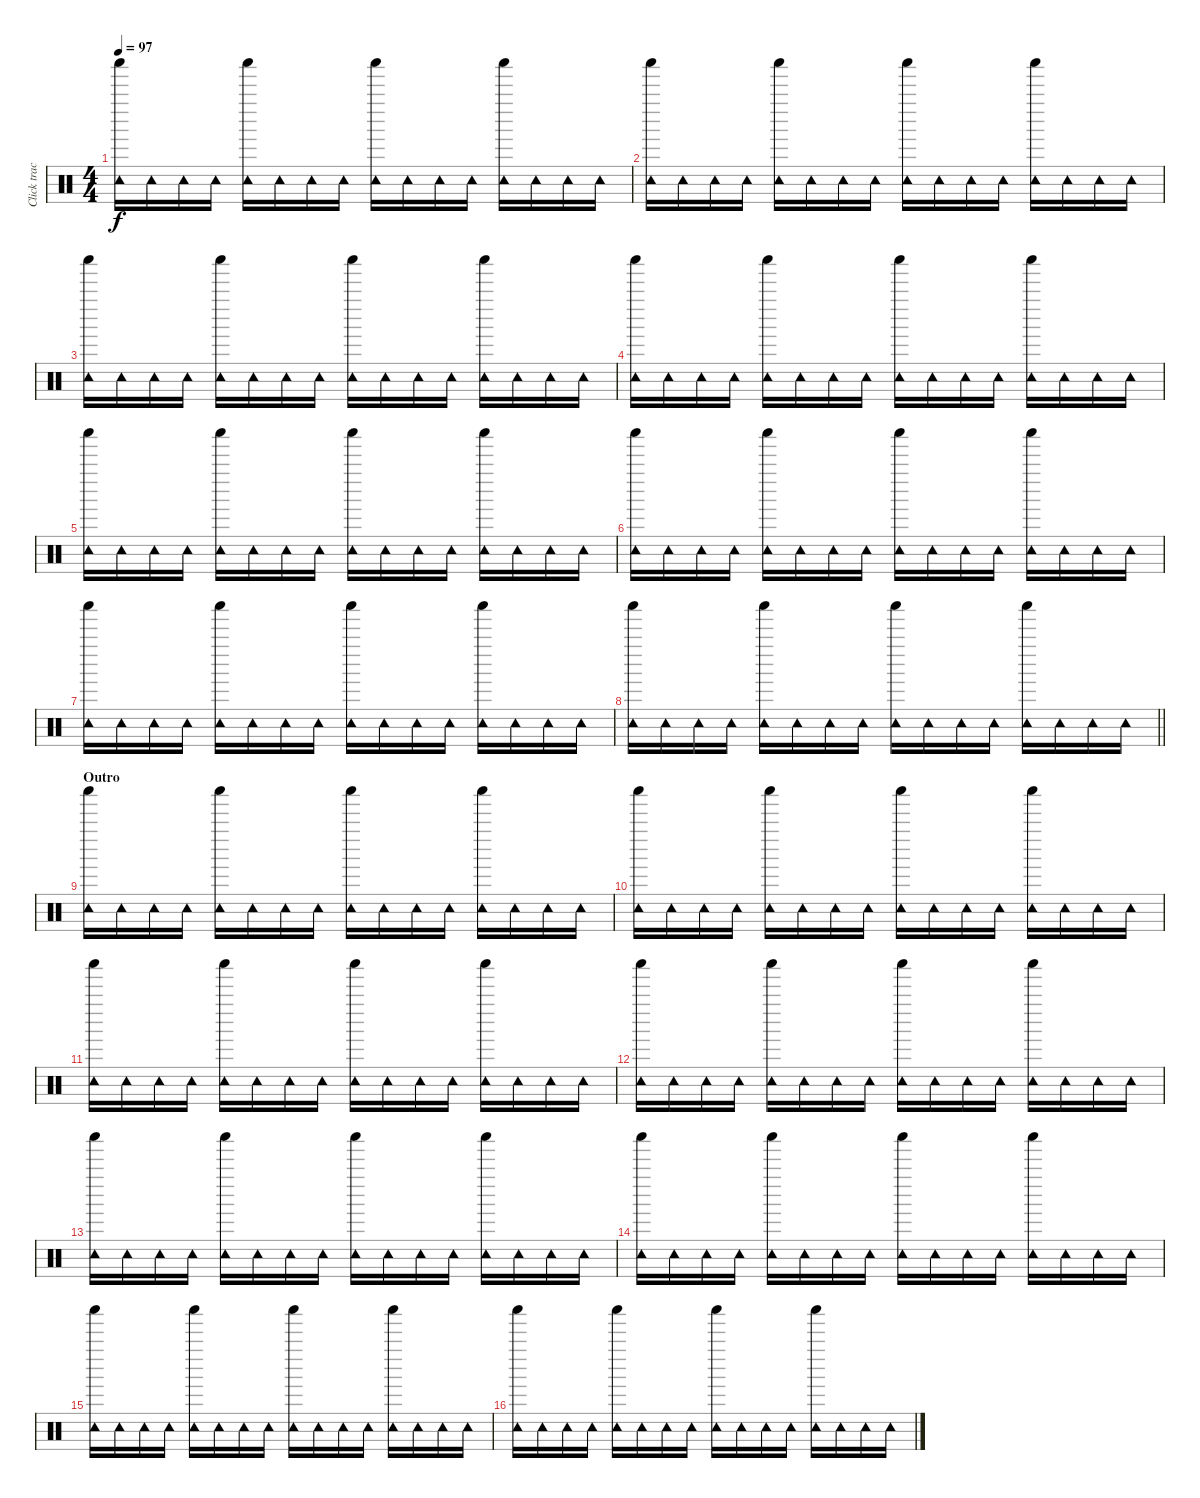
\track ("Click track" "Click trac") {instrument percussion}
\staff {score}
\articulation defaults
\ts (4 4)
\tempo 97
\clef neutral
\ks c
("Shaker (hit)" "Tambourine (hit)").16{dy f} "Tambourine (hit)".16 "Tambourine (hit)".16 "Tambourine (hit)".16 ("Shaker (hit)" "Tambourine (hit)").16 "Tambourine (hit)".16 "Tambourine (hit)".16 "Tambourine (hit)".16 ("Shaker (hit)" "Tambourine (hit)").16 "Tambourine (hit)".16 "Tambourine (hit)".16 "Tambourine (hit)".16 ("Shaker (hit)" "Tambourine (hit)").16 "Tambourine (hit)".16 "Tambourine (hit)".16 "Tambourine (hit)".16 |
("Shaker (hit)" "Tambourine (hit)").16 "Tambourine (hit)".16 "Tambourine (hit)".16 "Tambourine (hit)".16 ("Shaker (hit)" "Tambourine (hit)").16 "Tambourine (hit)".16 "Tambourine (hit)".16 "Tambourine (hit)".16 ("Shaker (hit)" "Tambourine (hit)").16 "Tambourine (hit)".16 "Tambourine (hit)".16 "Tambourine (hit)".16 ("Shaker (hit)" "Tambourine (hit)").16 "Tambourine (hit)".16 "Tambourine (hit)".16 "Tambourine (hit)".16 |
("Shaker (hit)" "Tambourine (hit)").16 "Tambourine (hit)".16 "Tambourine (hit)".16 "Tambourine (hit)".16 ("Shaker (hit)" "Tambourine (hit)").16 "Tambourine (hit)".16 "Tambourine (hit)".16 "Tambourine (hit)".16 ("Shaker (hit)" "Tambourine (hit)").16 "Tambourine (hit)".16 "Tambourine (hit)".16 "Tambourine (hit)".16 ("Shaker (hit)" "Tambourine (hit)").16 "Tambourine (hit)".16 "Tambourine (hit)".16 "Tambourine (hit)".16 |
("Shaker (hit)" "Tambourine (hit)").16 "Tambourine (hit)".16 "Tambourine (hit)".16 "Tambourine (hit)".16 ("Shaker (hit)" "Tambourine (hit)").16 "Tambourine (hit)".16 "Tambourine (hit)".16 "Tambourine (hit)".16 ("Shaker (hit)" "Tambourine (hit)").16 "Tambourine (hit)".16 "Tambourine (hit)".16 "Tambourine (hit)".16 ("Shaker (hit)" "Tambourine (hit)").16 "Tambourine (hit)".16 "Tambourine (hit)".16 "Tambourine (hit)".16 |
("Shaker (hit)" "Tambourine (hit)").16 "Tambourine (hit)".16 "Tambourine (hit)".16 "Tambourine (hit)".16 ("Shaker (hit)" "Tambourine (hit)").16 "Tambourine (hit)".16 "Tambourine (hit)".16 "Tambourine (hit)".16 ("Shaker (hit)" "Tambourine (hit)").16 "Tambourine (hit)".16 "Tambourine (hit)".16 "Tambourine (hit)".16 ("Shaker (hit)" "Tambourine (hit)").16 "Tambourine (hit)".16 "Tambourine (hit)".16 "Tambourine (hit)".16 |
("Shaker (hit)" "Tambourine (hit)").16 "Tambourine (hit)".16 "Tambourine (hit)".16 "Tambourine (hit)".16 ("Shaker (hit)" "Tambourine (hit)").16 "Tambourine (hit)".16 "Tambourine (hit)".16 "Tambourine (hit)".16 ("Shaker (hit)" "Tambourine (hit)").16 "Tambourine (hit)".16 "Tambourine (hit)".16 "Tambourine (hit)".16 ("Shaker (hit)" "Tambourine (hit)").16 "Tambourine (hit)".16 "Tambourine (hit)".16 "Tambourine (hit)".16 |
("Shaker (hit)" "Tambourine (hit)").16 "Tambourine (hit)".16 "Tambourine (hit)".16 "Tambourine (hit)".16 ("Shaker (hit)" "Tambourine (hit)").16 "Tambourine (hit)".16 "Tambourine (hit)".16 "Tambourine (hit)".16 ("Shaker (hit)" "Tambourine (hit)").16 "Tambourine (hit)".16 "Tambourine (hit)".16 "Tambourine (hit)".16 ("Shaker (hit)" "Tambourine (hit)").16 "Tambourine (hit)".16 "Tambourine (hit)".16 "Tambourine (hit)".16 |
\barLineRight lightlight
("Shaker (hit)" "Tambourine (hit)").16 "Tambourine (hit)".16 "Tambourine (hit)".16 "Tambourine (hit)".16 ("Shaker (hit)" "Tambourine (hit)").16 "Tambourine (hit)".16 "Tambourine (hit)".16 "Tambourine (hit)".16 ("Shaker (hit)" "Tambourine (hit)").16 "Tambourine (hit)".16 "Tambourine (hit)".16 "Tambourine (hit)".16 ("Shaker (hit)" "Tambourine (hit)").16 "Tambourine (hit)".16 "Tambourine (hit)".16 "Tambourine (hit)".16 |
\section ("" "Outro")
("Shaker (hit)" "Tambourine (hit)").16 "Tambourine (hit)".16 "Tambourine (hit)".16 "Tambourine (hit)".16 ("Shaker (hit)" "Tambourine (hit)").16 "Tambourine (hit)".16 "Tambourine (hit)".16 "Tambourine (hit)".16 ("Shaker (hit)" "Tambourine (hit)").16 "Tambourine (hit)".16 "Tambourine (hit)".16 "Tambourine (hit)".16 ("Shaker (hit)" "Tambourine (hit)").16 "Tambourine (hit)".16 "Tambourine (hit)".16 "Tambourine (hit)".16 |
("Shaker (hit)" "Tambourine (hit)").16 "Tambourine (hit)".16 "Tambourine (hit)".16 "Tambourine (hit)".16 ("Shaker (hit)" "Tambourine (hit)").16 "Tambourine (hit)".16 "Tambourine (hit)".16 "Tambourine (hit)".16 ("Shaker (hit)" "Tambourine (hit)").16 "Tambourine (hit)".16 "Tambourine (hit)".16 "Tambourine (hit)".16 ("Shaker (hit)" "Tambourine (hit)").16 "Tambourine (hit)".16 "Tambourine (hit)".16 "Tambourine (hit)".16 |
("Shaker (hit)" "Tambourine (hit)").16 "Tambourine (hit)".16 "Tambourine (hit)".16 "Tambourine (hit)".16 ("Shaker (hit)" "Tambourine (hit)").16 "Tambourine (hit)".16 "Tambourine (hit)".16 "Tambourine (hit)".16 ("Shaker (hit)" "Tambourine (hit)").16 "Tambourine (hit)".16 "Tambourine (hit)".16 "Tambourine (hit)".16 ("Shaker (hit)" "Tambourine (hit)").16 "Tambourine (hit)".16 "Tambourine (hit)".16 "Tambourine (hit)".16 |
("Shaker (hit)" "Tambourine (hit)").16 "Tambourine (hit)".16 "Tambourine (hit)".16 "Tambourine (hit)".16 ("Shaker (hit)" "Tambourine (hit)").16 "Tambourine (hit)".16 "Tambourine (hit)".16 "Tambourine (hit)".16 ("Shaker (hit)" "Tambourine (hit)").16 "Tambourine (hit)".16 "Tambourine (hit)".16 "Tambourine (hit)".16 ("Shaker (hit)" "Tambourine (hit)").16 "Tambourine (hit)".16 "Tambourine (hit)".16 "Tambourine (hit)".16 |
("Shaker (hit)" "Tambourine (hit)").16 "Tambourine (hit)".16 "Tambourine (hit)".16 "Tambourine (hit)".16 ("Shaker (hit)" "Tambourine (hit)").16 "Tambourine (hit)".16 "Tambourine (hit)".16 "Tambourine (hit)".16 ("Shaker (hit)" "Tambourine (hit)").16 "Tambourine (hit)".16 "Tambourine (hit)".16 "Tambourine (hit)".16 ("Shaker (hit)" "Tambourine (hit)").16 "Tambourine (hit)".16 "Tambourine (hit)".16 "Tambourine (hit)".16 |
("Shaker (hit)" "Tambourine (hit)").16 "Tambourine (hit)".16 "Tambourine (hit)".16 "Tambourine (hit)".16 ("Shaker (hit)" "Tambourine (hit)").16 "Tambourine (hit)".16 "Tambourine (hit)".16 "Tambourine (hit)".16 ("Shaker (hit)" "Tambourine (hit)").16 "Tambourine (hit)".16 "Tambourine (hit)".16 "Tambourine (hit)".16 ("Shaker (hit)" "Tambourine (hit)").16 "Tambourine (hit)".16 "Tambourine (hit)".16 "Tambourine (hit)".16 |
("Shaker (hit)" "Tambourine (hit)").16 "Tambourine (hit)".16 "Tambourine (hit)".16 "Tambourine (hit)".16 ("Shaker (hit)" "Tambourine (hit)").16 "Tambourine (hit)".16 "Tambourine (hit)".16 "Tambourine (hit)".16 ("Shaker (hit)" "Tambourine (hit)").16 "Tambourine (hit)".16 "Tambourine (hit)".16 "Tambourine (hit)".16 ("Shaker (hit)" "Tambourine (hit)").16 "Tambourine (hit)".16 "Tambourine (hit)".16 "Tambourine (hit)".16 |
("Shaker (hit)" "Tambourine (hit)").16 "Tambourine (hit)".16 "Tambourine (hit)".16 "Tambourine (hit)".16 ("Shaker (hit)" "Tambourine (hit)").16 "Tambourine (hit)".16 "Tambourine (hit)".16 "Tambourine (hit)".16 ("Shaker (hit)" "Tambourine (hit)").16 "Tambourine (hit)".16 "Tambourine (hit)".16 "Tambourine (hit)".16 ("Shaker (hit)" "Tambourine (hit)").16 "Tambourine (hit)".16 "Tambourine (hit)".16 "Tambourine (hit)".16
